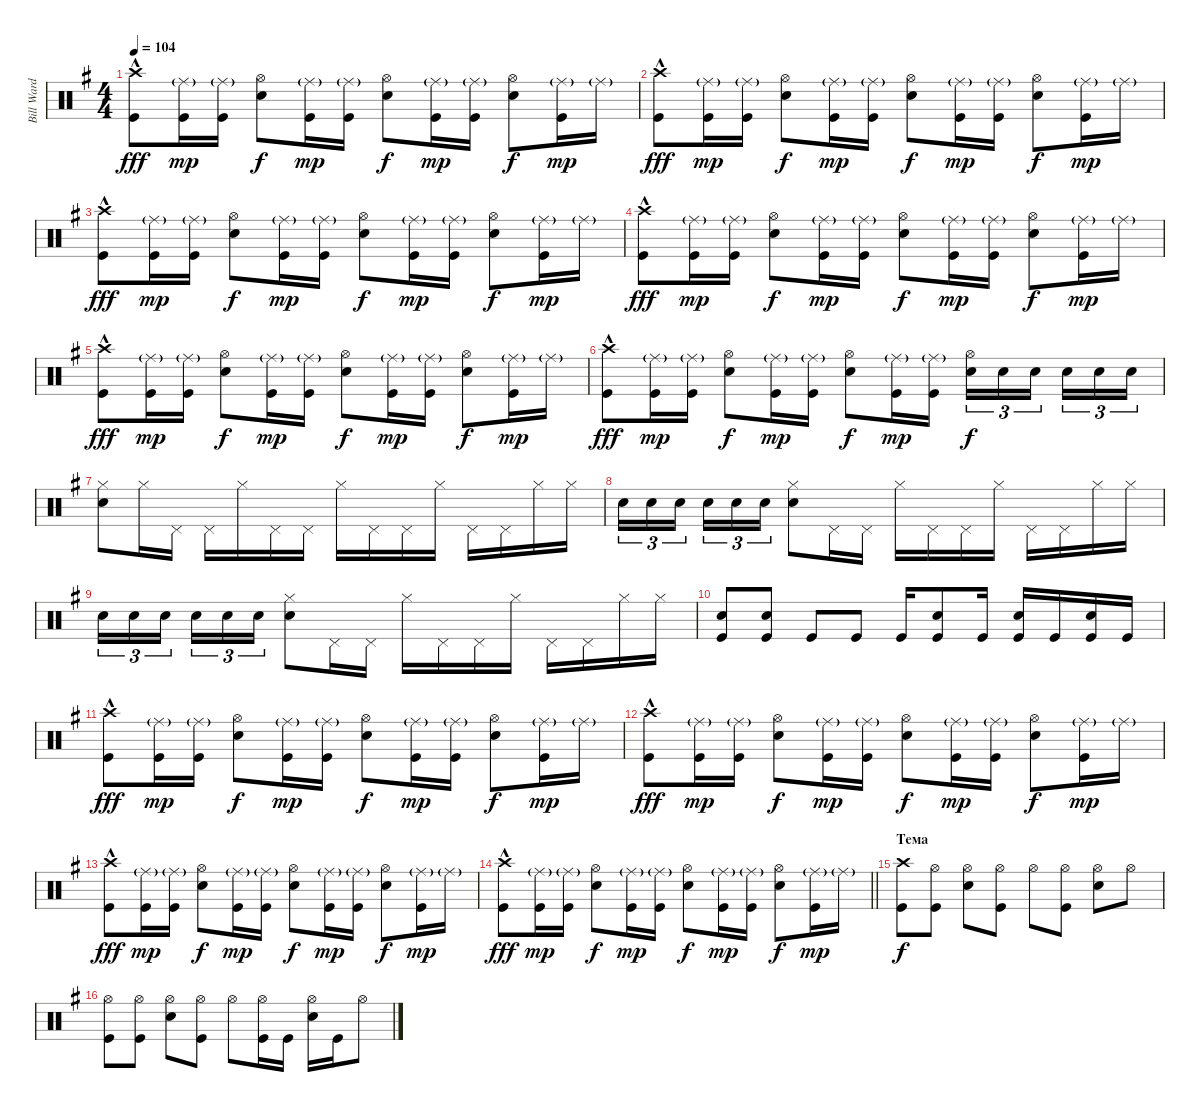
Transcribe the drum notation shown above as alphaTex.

\track ("Bill Ward" "Bill Ward") {instrument percussion}
\staff {score}
\articulation defaults
\ts (4 4)
\tempo 104
\clef neutral
\ks g
("Kick (hit)" "Crash high (hit)"{hac}).8{dy fff} ("Kick (hit)" "Ride (middle)"{g}).16{dy mp} ("Kick (hit)" "Ride (middle)"{g}).16 ("Snare (hit) 2" "Hi-Hat (open)").8{dy f} ("Kick (hit)" "Ride (middle)"{g}).16{dy mp} ("Kick (hit)" "Ride (middle)"{g}).16 ("Snare (hit) 2" "Hi-Hat (open)").8{dy f} ("Kick (hit)" "Ride (middle)"{g}).16{dy mp} ("Kick (hit)" "Ride (middle)"{g}).16 ("Snare (hit) 2" "Hi-Hat (open)").8{dy f} ("Kick (hit)" "Ride (middle)"{g}).16{dy mp} "Ride (middle)"{g}.16 |
("Kick (hit)" "Crash high (hit)"{hac}).8{dy fff} ("Kick (hit)" "Ride (middle)"{g}).16{dy mp} ("Kick (hit)" "Ride (middle)"{g}).16 ("Snare (hit) 2" "Hi-Hat (open)").8{dy f} ("Kick (hit)" "Ride (middle)"{g}).16{dy mp} ("Kick (hit)" "Ride (middle)"{g}).16 ("Snare (hit) 2" "Hi-Hat (open)").8{dy f} ("Kick (hit)" "Ride (middle)"{g}).16{dy mp} ("Kick (hit)" "Ride (middle)"{g}).16 ("Snare (hit) 2" "Hi-Hat (open)").8{dy f} ("Kick (hit)" "Ride (middle)"{g}).16{dy mp} "Ride (middle)"{g}.16 |
("Kick (hit)" "Crash high (hit)"{hac}).8{dy fff} ("Kick (hit)" "Ride (middle)"{g}).16{dy mp} ("Kick (hit)" "Ride (middle)"{g}).16 ("Snare (hit) 2" "Hi-Hat (open)").8{dy f} ("Kick (hit)" "Ride (middle)"{g}).16{dy mp} ("Kick (hit)" "Ride (middle)"{g}).16 ("Snare (hit) 2" "Hi-Hat (open)").8{dy f} ("Kick (hit)" "Ride (middle)"{g}).16{dy mp} ("Kick (hit)" "Ride (middle)"{g}).16 ("Snare (hit) 2" "Hi-Hat (open)").8{dy f} ("Kick (hit)" "Ride (middle)"{g}).16{dy mp} "Ride (middle)"{g}.16 |
("Kick (hit)" "Crash high (hit)"{hac}).8{dy fff} ("Kick (hit)" "Ride (middle)"{g}).16{dy mp} ("Kick (hit)" "Ride (middle)"{g}).16 ("Snare (hit) 2" "Hi-Hat (open)").8{dy f} ("Kick (hit)" "Ride (middle)"{g}).16{dy mp} ("Kick (hit)" "Ride (middle)"{g}).16 ("Snare (hit) 2" "Hi-Hat (open)").8{dy f} ("Kick (hit)" "Ride (middle)"{g}).16{dy mp} ("Kick (hit)" "Ride (middle)"{g}).16 ("Snare (hit) 2" "Hi-Hat (open)").8{dy f} ("Kick (hit)" "Ride (middle)"{g}).16{dy mp} "Ride (middle)"{g}.16 |
("Kick (hit)" "Crash high (hit)"{hac}).8{dy fff} ("Kick (hit)" "Ride (middle)"{g}).16{dy mp} ("Kick (hit)" "Ride (middle)"{g}).16 ("Snare (hit) 2" "Hi-Hat (open)").8{dy f} ("Kick (hit)" "Ride (middle)"{g}).16{dy mp} ("Kick (hit)" "Ride (middle)"{g}).16 ("Snare (hit) 2" "Hi-Hat (open)").8{dy f} ("Kick (hit)" "Ride (middle)"{g}).16{dy mp} ("Kick (hit)" "Ride (middle)"{g}).16 ("Snare (hit) 2" "Hi-Hat (open)").8{dy f} ("Kick (hit)" "Ride (middle)"{g}).16{dy mp} "Ride (middle)"{g}.16 |
("Kick (hit)" "Crash high (hit)"{hac}).8{dy fff} ("Kick (hit)" "Ride (middle)"{g}).16{dy mp} ("Kick (hit)" "Ride (middle)"{g}).16 ("Snare (hit) 2" "Hi-Hat (open)").8{dy f} ("Kick (hit)" "Ride (middle)"{g}).16{dy mp} ("Kick (hit)" "Ride (middle)"{g}).16 ("Snare (hit) 2" "Hi-Hat (open)").8{dy f} ("Kick (hit)" "Ride (middle)"{g}).16{dy mp} ("Kick (hit)" "Ride (middle)"{g}).16 ("Snare (hit) 2" "Hi-Hat (open)").16{tu (3 2) dy f} "Snare (hit) 2".16{tu (3 2)} "Snare (hit) 2".16{tu (3 2) beam splitsecondary} "Snare (hit) 2".16{tu (3 2)} "Snare (hit) 2".16{tu (3 2)} "Snare (hit) 2".16{tu (3 2)} |
("Snare (hit) 2" "Hi-Hat (closed)").8 "Hi-Hat (closed)".16 "Pedal Hi-Hat (hit)".16 "Pedal Hi-Hat (hit)".16 "Hi-Hat (closed)".16 "Pedal Hi-Hat (hit)".16 "Pedal Hi-Hat (hit)".16 "Hi-Hat (closed)".16 "Pedal Hi-Hat (hit)".16 "Pedal Hi-Hat (hit)".16 "Hi-Hat (closed)".16 "Pedal Hi-Hat (hit)".16 "Pedal Hi-Hat (hit)".16 "Hi-Hat (closed)".16 "Hi-Hat (closed)".16 |
"Snare (hit) 2".16{tu (3 2)} "Snare (hit) 2".16{tu (3 2)} "Snare (hit) 2".16{tu (3 2) beam splitsecondary} "Snare (hit) 2".16{tu (3 2)} "Snare (hit) 2".16{tu (3 2)} "Snare (hit) 2".16{tu (3 2)} ("Snare (hit) 2" "Hi-Hat (closed)").8 "Pedal Hi-Hat (hit)".16 "Pedal Hi-Hat (hit)".16 "Hi-Hat (closed)".16 "Pedal Hi-Hat (hit)".16 "Pedal Hi-Hat (hit)".16 "Hi-Hat (closed)".16 "Pedal Hi-Hat (hit)".16 "Pedal Hi-Hat (hit)".16 "Hi-Hat (closed)".16 "Hi-Hat (closed)".16 |
"Snare (hit) 2".16{tu (3 2)} "Snare (hit) 2".16{tu (3 2)} "Snare (hit) 2".16{tu (3 2) beam splitsecondary} "Snare (hit) 2".16{tu (3 2)} "Snare (hit) 2".16{tu (3 2)} "Snare (hit) 2".16{tu (3 2)} ("Snare (hit) 2" "Hi-Hat (closed)").8 "Pedal Hi-Hat (hit)".16 "Pedal Hi-Hat (hit)".16 "Hi-Hat (closed)".16 "Pedal Hi-Hat (hit)".16 "Pedal Hi-Hat (hit)".16 "Hi-Hat (closed)".16 "Pedal Hi-Hat (hit)".16 "Pedal Hi-Hat (hit)".16 "Hi-Hat (closed)".16 "Hi-Hat (closed)".16 |
("Kick (hit)" "Snare (hit) 2").8 ("Kick (hit)" "Snare (hit) 2").8 "Kick (hit)".8 "Kick (hit)".8 "Kick (hit)".16 ("Kick (hit)" "Snare (hit) 2").8 "Kick (hit)".16 ("Kick (hit)" "Snare (hit) 2").16 "Kick (hit)".16 ("Kick (hit)" "Snare (hit) 2").16 "Kick (hit)".16 |
("Kick (hit)" "Crash high (hit)"{hac}).8{dy fff} ("Kick (hit)" "Ride (middle)"{g}).16{dy mp} ("Kick (hit)" "Ride (middle)"{g}).16 ("Snare (hit) 2" "Hi-Hat (open)").8{dy f} ("Kick (hit)" "Ride (middle)"{g}).16{dy mp} ("Kick (hit)" "Ride (middle)"{g}).16 ("Snare (hit) 2" "Hi-Hat (open)").8{dy f} ("Kick (hit)" "Ride (middle)"{g}).16{dy mp} ("Kick (hit)" "Ride (middle)"{g}).16 ("Snare (hit) 2" "Hi-Hat (open)").8{dy f} ("Kick (hit)" "Ride (middle)"{g}).16{dy mp} "Ride (middle)"{g}.16 |
("Kick (hit)" "Crash high (hit)"{hac}).8{dy fff} ("Kick (hit)" "Ride (middle)"{g}).16{dy mp} ("Kick (hit)" "Ride (middle)"{g}).16 ("Snare (hit) 2" "Hi-Hat (open)").8{dy f} ("Kick (hit)" "Ride (middle)"{g}).16{dy mp} ("Kick (hit)" "Ride (middle)"{g}).16 ("Snare (hit) 2" "Hi-Hat (open)").8{dy f} ("Kick (hit)" "Ride (middle)"{g}).16{dy mp} ("Kick (hit)" "Ride (middle)"{g}).16 ("Snare (hit) 2" "Hi-Hat (open)").8{dy f} ("Kick (hit)" "Ride (middle)"{g}).16{dy mp} "Ride (middle)"{g}.16 |
("Kick (hit)" "Crash high (hit)"{hac}).8{dy fff} ("Kick (hit)" "Ride (middle)"{g}).16{dy mp} ("Kick (hit)" "Ride (middle)"{g}).16 ("Snare (hit) 2" "Hi-Hat (open)").8{dy f} ("Kick (hit)" "Ride (middle)"{g}).16{dy mp} ("Kick (hit)" "Ride (middle)"{g}).16 ("Snare (hit) 2" "Hi-Hat (open)").8{dy f} ("Kick (hit)" "Ride (middle)"{g}).16{dy mp} ("Kick (hit)" "Ride (middle)"{g}).16 ("Snare (hit) 2" "Hi-Hat (open)").8{dy f} ("Kick (hit)" "Ride (middle)"{g}).16{dy mp} "Ride (middle)"{g}.16 |
\barLineRight lightlight
("Kick (hit)" "Crash high (hit)"{hac}).8{dy fff} ("Kick (hit)" "Ride (middle)"{g}).16{dy mp} ("Kick (hit)" "Ride (middle)"{g}).16 ("Snare (hit) 2" "Hi-Hat (open)").8{dy f} ("Kick (hit)" "Ride (middle)"{g}).16{dy mp} ("Kick (hit)" "Ride (middle)"{g}).16 ("Snare (hit) 2" "Hi-Hat (open)").8{dy f} ("Kick (hit)" "Ride (middle)"{g}).16{dy mp} ("Kick (hit)" "Ride (middle)"{g}).16 ("Snare (hit) 2" "Hi-Hat (open)").8{dy f} ("Kick (hit)" "Ride (middle)"{g}).16{dy mp} "Ride (middle)"{g}.16 |
\section ("" "Тема")
("Crash high (hit)" "Kick (hit)").8{dy f} ("Kick (hit)" "Hi-Hat (open)").8 ("Snare (hit) 2" "Hi-Hat (open)").8 ("Kick (hit)" "Hi-Hat (open)").8 "Hi-Hat (open)".8 ("Kick (hit)" "Hi-Hat (open)").8 ("Hi-Hat (open)" "Snare (hit) 2").8 "Hi-Hat (open)".8 |
("Kick (hit)" "Hi-Hat (open)").8 ("Kick (hit)" "Hi-Hat (open)").8 ("Snare (hit) 2" "Hi-Hat (open)").8 ("Kick (hit)" "Hi-Hat (open)").8 "Hi-Hat (open)".8 ("Kick (hit)" "Hi-Hat (open)").16 "Kick (hit)".16 ("Hi-Hat (open)" "Snare (hit) 2").16 "Kick (hit)".16 "Hi-Hat (open)".8
